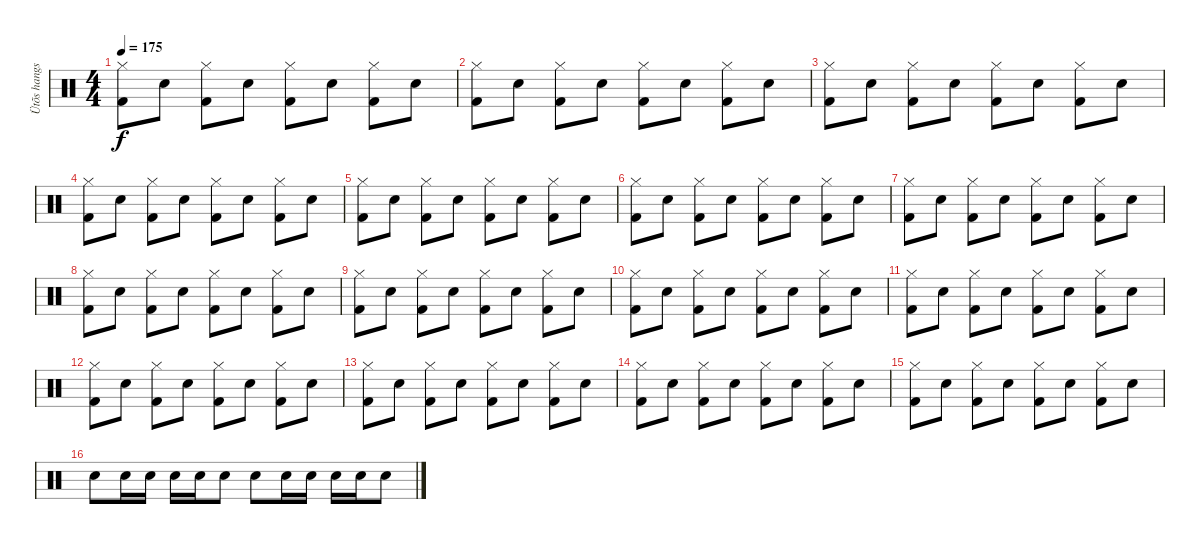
\track ("Ütõs hangszer" "Ütõs hangs") {instrument percussion}
\staff {score}
\articulation defaults
\ts (4 4)
\tempo 175
\clef neutral
\ks c
("Hi-Hat (closed)" "Kick (hit) 2").8{dy f} "Electric Snare (hit)".8 ("Hi-Hat (closed)" "Kick (hit) 2").8 "Electric Snare (hit)".8 ("Hi-Hat (closed)" "Kick (hit) 2").8 "Electric Snare (hit)".8 ("Hi-Hat (closed)" "Kick (hit) 2").8 "Electric Snare (hit)".8 |
("Hi-Hat (closed)" "Kick (hit) 2").8 "Electric Snare (hit)".8 ("Hi-Hat (closed)" "Kick (hit) 2").8 "Electric Snare (hit)".8 ("Hi-Hat (closed)" "Kick (hit) 2").8 "Electric Snare (hit)".8 ("Hi-Hat (closed)" "Kick (hit) 2").8 "Electric Snare (hit)".8 |
("Hi-Hat (closed)" "Kick (hit) 2").8 "Electric Snare (hit)".8 ("Hi-Hat (closed)" "Kick (hit) 2").8 "Electric Snare (hit)".8 ("Hi-Hat (closed)" "Kick (hit) 2").8 "Electric Snare (hit)".8 ("Hi-Hat (closed)" "Kick (hit) 2").8 "Electric Snare (hit)".8 |
("Hi-Hat (closed)" "Kick (hit) 2").8 "Electric Snare (hit)".8 ("Hi-Hat (closed)" "Kick (hit) 2").8 "Electric Snare (hit)".8 ("Hi-Hat (closed)" "Kick (hit) 2").8 "Electric Snare (hit)".8 ("Hi-Hat (closed)" "Kick (hit) 2").8 "Electric Snare (hit)".8 |
("Hi-Hat (closed)" "Kick (hit) 2").8 "Electric Snare (hit)".8 ("Hi-Hat (closed)" "Kick (hit) 2").8 "Electric Snare (hit)".8 ("Hi-Hat (closed)" "Kick (hit) 2").8 "Electric Snare (hit)".8 ("Hi-Hat (closed)" "Kick (hit) 2").8 "Electric Snare (hit)".8 |
("Hi-Hat (closed)" "Kick (hit) 2").8 "Electric Snare (hit)".8 ("Hi-Hat (closed)" "Kick (hit) 2").8 "Electric Snare (hit)".8 ("Hi-Hat (closed)" "Kick (hit) 2").8 "Electric Snare (hit)".8 ("Hi-Hat (closed)" "Kick (hit) 2").8 "Electric Snare (hit)".8 |
("Hi-Hat (closed)" "Kick (hit) 2").8 "Electric Snare (hit)".8 ("Hi-Hat (closed)" "Kick (hit) 2").8 "Electric Snare (hit)".8 ("Hi-Hat (closed)" "Kick (hit) 2").8 "Electric Snare (hit)".8 ("Hi-Hat (closed)" "Kick (hit) 2").8 "Electric Snare (hit)".8 |
("Hi-Hat (closed)" "Kick (hit) 2").8 "Electric Snare (hit)".8 ("Hi-Hat (closed)" "Kick (hit) 2").8 "Electric Snare (hit)".8 ("Hi-Hat (closed)" "Kick (hit) 2").8 "Electric Snare (hit)".8 ("Hi-Hat (closed)" "Kick (hit) 2").8 "Electric Snare (hit)".8 |
("Hi-Hat (closed)" "Kick (hit) 2").8 "Electric Snare (hit)".8 ("Hi-Hat (closed)" "Kick (hit) 2").8 "Electric Snare (hit)".8 ("Hi-Hat (closed)" "Kick (hit) 2").8 "Electric Snare (hit)".8 ("Hi-Hat (closed)" "Kick (hit) 2").8 "Electric Snare (hit)".8 |
("Hi-Hat (closed)" "Kick (hit) 2").8 "Electric Snare (hit)".8 ("Hi-Hat (closed)" "Kick (hit) 2").8 "Electric Snare (hit)".8 ("Hi-Hat (closed)" "Kick (hit) 2").8 "Electric Snare (hit)".8 ("Hi-Hat (closed)" "Kick (hit) 2").8 "Electric Snare (hit)".8 |
("Hi-Hat (closed)" "Kick (hit) 2").8 "Electric Snare (hit)".8 ("Hi-Hat (closed)" "Kick (hit) 2").8 "Electric Snare (hit)".8 ("Hi-Hat (closed)" "Kick (hit) 2").8 "Electric Snare (hit)".8 ("Hi-Hat (closed)" "Kick (hit) 2").8 "Electric Snare (hit)".8 |
("Hi-Hat (closed)" "Kick (hit) 2").8 "Electric Snare (hit)".8 ("Hi-Hat (closed)" "Kick (hit) 2").8 "Electric Snare (hit)".8 ("Hi-Hat (closed)" "Kick (hit) 2").8 "Electric Snare (hit)".8 ("Hi-Hat (closed)" "Kick (hit) 2").8 "Electric Snare (hit)".8 |
("Hi-Hat (closed)" "Kick (hit) 2").8 "Electric Snare (hit)".8 ("Hi-Hat (closed)" "Kick (hit) 2").8 "Electric Snare (hit)".8 ("Hi-Hat (closed)" "Kick (hit) 2").8 "Electric Snare (hit)".8 ("Hi-Hat (closed)" "Kick (hit) 2").8 "Electric Snare (hit)".8 |
("Hi-Hat (closed)" "Kick (hit) 2").8 "Electric Snare (hit)".8 ("Hi-Hat (closed)" "Kick (hit) 2").8 "Electric Snare (hit)".8 ("Hi-Hat (closed)" "Kick (hit) 2").8 "Electric Snare (hit)".8 ("Hi-Hat (closed)" "Kick (hit) 2").8 "Electric Snare (hit)".8 |
("Hi-Hat (closed)" "Kick (hit) 2").8 "Electric Snare (hit)".8 ("Hi-Hat (closed)" "Kick (hit) 2").8 "Electric Snare (hit)".8 ("Hi-Hat (closed)" "Kick (hit) 2").8 "Electric Snare (hit)".8 ("Hi-Hat (closed)" "Kick (hit) 2").8 "Electric Snare (hit)".8 |
"Electric Snare (hit)".8 "Electric Snare (hit)".16 "Electric Snare (hit)".16 "Electric Snare (hit)".16 "Electric Snare (hit)".16 "Electric Snare (hit)".8 "Electric Snare (hit)".8 "Electric Snare (hit)".16 "Electric Snare (hit)".16 "Electric Snare (hit)".16 "Electric Snare (hit)".16 "Electric Snare (hit)".8
